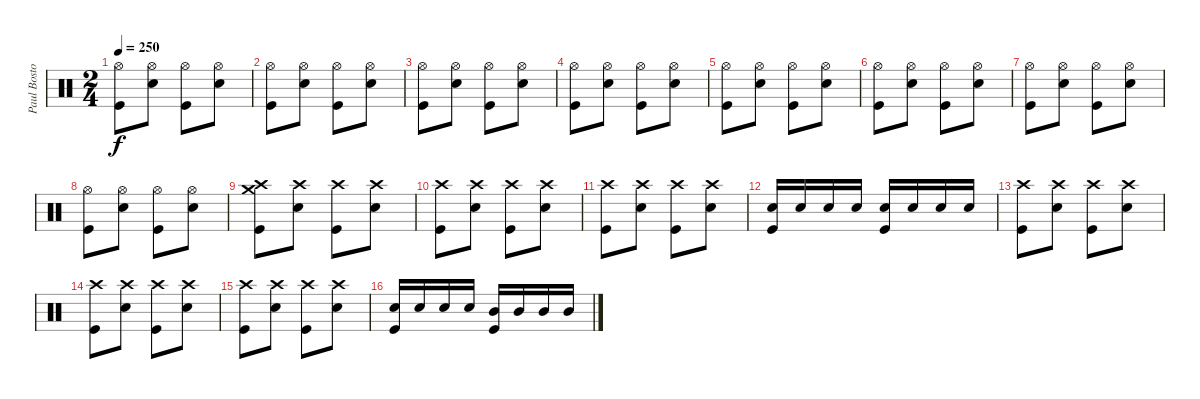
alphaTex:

\track ("Paul Bostoph" "Paul Bosto") {instrument percussion}
\staff {score}
\articulation defaults
\ts (2 4)
\tempo 250
\clef neutral
\ks c
("Hi-Hat (open)" "Kick (hit)").8{dy f} ("Hi-Hat (open)" "Snare (hit) 2").8 ("Hi-Hat (open)" "Kick (hit)").8 ("Hi-Hat (open)" "Snare (hit) 2").8 |
("Hi-Hat (open)" "Kick (hit)").8 ("Hi-Hat (open)" "Snare (hit) 2").8 ("Hi-Hat (open)" "Kick (hit)").8 ("Hi-Hat (open)" "Snare (hit) 2").8 |
("Hi-Hat (open)" "Kick (hit)").8 ("Hi-Hat (open)" "Snare (hit) 2").8 ("Hi-Hat (open)" "Kick (hit)").8 ("Hi-Hat (open)" "Snare (hit) 2").8 |
("Hi-Hat (open)" "Kick (hit)").8 ("Hi-Hat (open)" "Snare (hit) 2").8 ("Hi-Hat (open)" "Kick (hit)").8 ("Hi-Hat (open)" "Snare (hit) 2").8 |
("Hi-Hat (open)" "Kick (hit)").8 ("Hi-Hat (open)" "Snare (hit) 2").8 ("Hi-Hat (open)" "Kick (hit)").8 ("Hi-Hat (open)" "Snare (hit) 2").8 |
("Hi-Hat (open)" "Kick (hit)").8 ("Hi-Hat (open)" "Snare (hit) 2").8 ("Hi-Hat (open)" "Kick (hit)").8 ("Hi-Hat (open)" "Snare (hit) 2").8 |
("Hi-Hat (open)" "Kick (hit)").8 ("Hi-Hat (open)" "Snare (hit) 2").8 ("Hi-Hat (open)" "Kick (hit)").8 ("Hi-Hat (open)" "Snare (hit) 2").8 |
("Hi-Hat (open)" "Kick (hit)").8 ("Hi-Hat (open)" "Snare (hit) 2").8 ("Hi-Hat (open)" "Kick (hit)").8 ("Hi-Hat (open)" "Snare (hit) 2").8 |
("Crash medium (hit)" "Crash high (hit)" "Kick (hit)").8 ("Crash high (hit)" "Snare (hit) 2").8 ("Crash high (hit)" "Kick (hit)").8 ("Crash high (hit)" "Snare (hit) 2").8 |
("Crash high (hit)" "Kick (hit)").8 ("Crash high (hit)" "Snare (hit) 2").8 ("Crash high (hit)" "Kick (hit)").8 ("Crash high (hit)" "Snare (hit) 2").8 |
("Crash high (hit)" "Kick (hit)").8 ("Crash high (hit)" "Snare (hit) 2").8 ("Crash high (hit)" "Kick (hit)").8 ("Crash high (hit)" "Snare (hit) 2").8 |
("Snare (hit) 2" "Kick (hit)").16 "Snare (hit) 2".16 "Snare (hit) 2".16 "Snare (hit) 2".16 ("Snare (hit) 2" "Kick (hit)").16 "Snare (hit) 2".16 "Snare (hit) 2".16 "Snare (hit) 2".16 |
("Crash high (hit)" "Kick (hit)").8 ("Crash high (hit)" "Snare (hit) 2").8 ("Crash high (hit)" "Kick (hit)").8 ("Crash high (hit)" "Snare (hit) 2").8 |
("Crash high (hit)" "Kick (hit)").8 ("Crash high (hit)" "Snare (hit) 2").8 ("Crash high (hit)" "Kick (hit)").8 ("Crash high (hit)" "Snare (hit) 2").8 |
("Crash high (hit)" "Kick (hit)").8 ("Crash high (hit)" "Snare (hit) 2").8 ("Crash high (hit)" "Kick (hit)").8 ("Crash high (hit)" "Snare (hit) 2").8 |
("Snare (hit) 2" "Kick (hit)").16 "Snare (hit) 2".16 "Snare (hit) 2".16 "Snare (hit) 2".16 ("Mid Tom (hit)" "Kick (hit)").16 "Mid Tom (hit)".16 "Mid Tom (hit)".16 "Mid Tom (hit)".16
